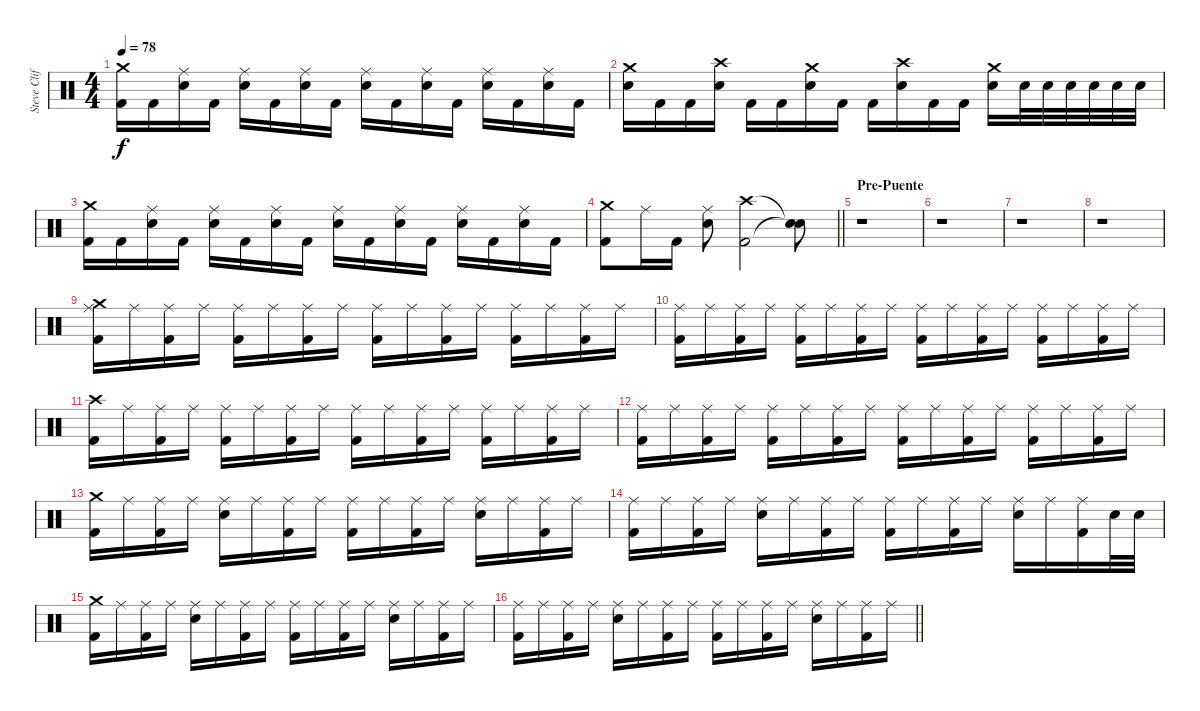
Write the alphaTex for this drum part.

\track ("Steve Clifford" "Steve Clif") {instrument percussion}
\staff
\articulation defaults
\ts (4 4)
\tempo 78
\clef neutral
\ks c
("Crash medium (hit)" "Kick (hit) 2").16{dy f} "Kick (hit) 2".16 ("Ride (middle)" "Electric Snare (hit)").16 "Kick (hit) 2".16 ("Ride (middle)" "Electric Snare (hit)").16 "Kick (hit) 2".16 ("Ride (middle)" "Electric Snare (hit)").16 "Kick (hit) 2".16 ("Ride (middle)" "Electric Snare (hit)").16 "Kick (hit) 2".16 ("Ride (middle)" "Electric Snare (hit)").16 "Kick (hit) 2".16 ("Ride (middle)" "Electric Snare (hit)").16 "Kick (hit) 2".16 ("Ride (middle)" "Electric Snare (hit)").16 "Kick (hit) 2".16 |
("Crash medium (hit)" "Electric Snare (hit)").16 "Kick (hit) 2".16 "Kick (hit) 2".16 ("Crash high (hit)" "Electric Snare (hit)").16 "Kick (hit) 2".16 "Kick (hit) 2".16 ("Crash medium (hit)" "Electric Snare (hit)").16 "Kick (hit) 2".16 "Kick (hit) 2".16 ("Crash high (hit)" "Electric Snare (hit)").16 "Kick (hit) 2".16 "Kick (hit) 2".16 ("Crash medium (hit)" "Electric Snare (hit)").16 "Electric Snare (hit)".32 "Electric Snare (hit)".32 "Electric Snare (hit)".32 "Electric Snare (hit)".32 "Electric Snare (hit)".32 "Electric Snare (hit)".32 |
("Crash medium (hit)" "Kick (hit) 2").16 "Kick (hit) 2".16 ("Ride (middle)" "Electric Snare (hit)").16 "Kick (hit) 2".16 ("Ride (middle)" "Electric Snare (hit)").16 "Kick (hit) 2".16 ("Ride (middle)" "Electric Snare (hit)").16 "Kick (hit) 2".16 ("Ride (middle)" "Electric Snare (hit)").16 "Kick (hit) 2".16 ("Ride (middle)" "Electric Snare (hit)").16 "Kick (hit) 2".16 ("Ride (middle)" "Electric Snare (hit)").16 "Kick (hit) 2".16 ("Ride (middle)" "Electric Snare (hit)").16 "Kick (hit) 2".16 |
\barLineRight lightlight
("Crash medium (hit)" "Kick (hit) 2").8 "Ride (middle)".16 "Kick (hit) 2".16 ("Ride (middle)" "Electric Snare (hit)").8 ("Crash high (hit)" "Kick (hit) 2").2 ("Snare (hit)"{t} "Snare (hit)"{t}).8 |
\section ("" "Pre-Puente")
r.1 |
r.1 |
r.1 |
r.1 |
("Crash medium (hit)" "Ride (middle)" "Kick (hit) 2").16 "Ride (middle)".16 ("Ride (middle)" "Kick (hit) 2").16 "Ride (middle)".16 ("Ride (middle)" "Kick (hit) 2").16 "Ride (middle)".16 ("Ride (middle)" "Kick (hit) 2").16 "Ride (middle)".16 ("Ride (middle)" "Kick (hit) 2").16 "Ride (middle)".16 ("Ride (middle)" "Kick (hit) 2").16 "Ride (middle)".16 ("Ride (middle)" "Kick (hit) 2").16 "Ride (middle)".16 ("Ride (middle)" "Kick (hit) 2").16 "Ride (middle)".16 |
("Ride (middle)" "Kick (hit) 2").16 "Ride (middle)".16 ("Ride (middle)" "Kick (hit) 2").16 "Ride (middle)".16 ("Ride (middle)" "Kick (hit) 2").16 "Ride (middle)".16 ("Ride (middle)" "Kick (hit) 2").16 "Ride (middle)".16 ("Ride (middle)" "Kick (hit) 2").16 "Ride (middle)".16 ("Ride (middle)" "Kick (hit) 2").16 "Ride (middle)".16 ("Ride (middle)" "Kick (hit) 2").16 "Ride (middle)".16 ("Ride (middle)" "Kick (hit) 2").16 "Ride (middle)".16 |
("Crash high (hit)" "Kick (hit) 2").16 "Ride (middle)".16 ("Ride (middle)" "Kick (hit) 2").16 "Ride (middle)".16 ("Ride (middle)" "Kick (hit) 2").16 "Ride (middle)".16 ("Ride (middle)" "Kick (hit) 2").16 "Ride (middle)".16 ("Ride (middle)" "Kick (hit) 2").16 "Ride (middle)".16 ("Ride (middle)" "Kick (hit) 2").16 "Ride (middle)".16 ("Ride (middle)" "Kick (hit) 2").16 "Ride (middle)".16 ("Ride (middle)" "Kick (hit) 2").16 "Ride (middle)".16 |
("Ride (middle)" "Kick (hit) 2").16 "Ride (middle)".16 ("Ride (middle)" "Kick (hit) 2").16 "Ride (middle)".16 ("Ride (middle)" "Kick (hit) 2").16 "Ride (middle)".16 ("Ride (middle)" "Kick (hit) 2").16 "Ride (middle)".16 ("Ride (middle)" "Kick (hit) 2").16 "Ride (middle)".16 ("Ride (middle)" "Kick (hit) 2").16 "Ride (middle)".16 ("Ride (middle)" "Kick (hit) 2").16 "Ride (middle)".16 ("Ride (middle)" "Kick (hit) 2").16 "Ride (middle)".16 |
("Crash medium (hit)" "Kick (hit) 2").16 "Ride (middle)".16 ("Ride (middle)" "Kick (hit) 2").16 "Ride (middle)".16 ("Ride (middle)" "Electric Snare (hit)").16 "Ride (middle)".16 ("Ride (middle)" "Kick (hit) 2").16 "Ride (middle)".16 ("Ride (middle)" "Kick (hit) 2").16 "Ride (middle)".16 ("Ride (middle)" "Kick (hit) 2").16 "Ride (middle)".16 ("Ride (middle)" "Electric Snare (hit)").16 "Ride (middle)".16 ("Ride (middle)" "Kick (hit) 2").16 "Ride (middle)".16 |
("Ride (middle)" "Kick (hit) 2").16 "Ride (middle)".16 ("Ride (middle)" "Kick (hit) 2").16 "Ride (middle)".16 ("Ride (middle)" "Electric Snare (hit)").16 "Ride (middle)".16 ("Ride (middle)" "Kick (hit) 2").16 "Ride (middle)".16 ("Ride (middle)" "Kick (hit) 2").16 "Ride (middle)".16 ("Ride (middle)" "Kick (hit) 2").16 "Ride (middle)".16 ("Ride (middle)" "Electric Snare (hit)").16 "Ride (middle)".16 ("Ride (middle)" "Kick (hit) 2").16 "Electric Snare (hit)".32 "Electric Snare (hit)".32 |
("Crash medium (hit)" "Kick (hit) 2").16 "Ride (middle)".16 ("Ride (middle)" "Kick (hit) 2").16 "Ride (middle)".16 ("Ride (middle)" "Electric Snare (hit)").16 "Ride (middle)".16 ("Ride (middle)" "Kick (hit) 2").16 "Ride (middle)".16 ("Ride (middle)" "Kick (hit) 2").16 "Ride (middle)".16 ("Ride (middle)" "Kick (hit) 2").16 "Ride (middle)".16 ("Ride (middle)" "Electric Snare (hit)").16 "Ride (middle)".16 ("Ride (middle)" "Kick (hit) 2").16 "Ride (middle)".16 |
\barLineRight lightlight
("Ride (middle)" "Kick (hit) 2").16 "Ride (middle)".16 ("Ride (middle)" "Kick (hit) 2").16 "Ride (middle)".16 ("Ride (middle)" "Electric Snare (hit)").16 "Ride (middle)".16 ("Ride (middle)" "Kick (hit) 2").16 "Ride (middle)".16 ("Ride (middle)" "Kick (hit) 2").16 "Ride (middle)".16 ("Ride (middle)" "Kick (hit) 2").16 "Ride (middle)".16 ("Ride (middle)" "Electric Snare (hit)").16 "Ride (middle)".16 ("Ride (middle)" "Kick (hit) 2").16 "Ride (middle)".16
